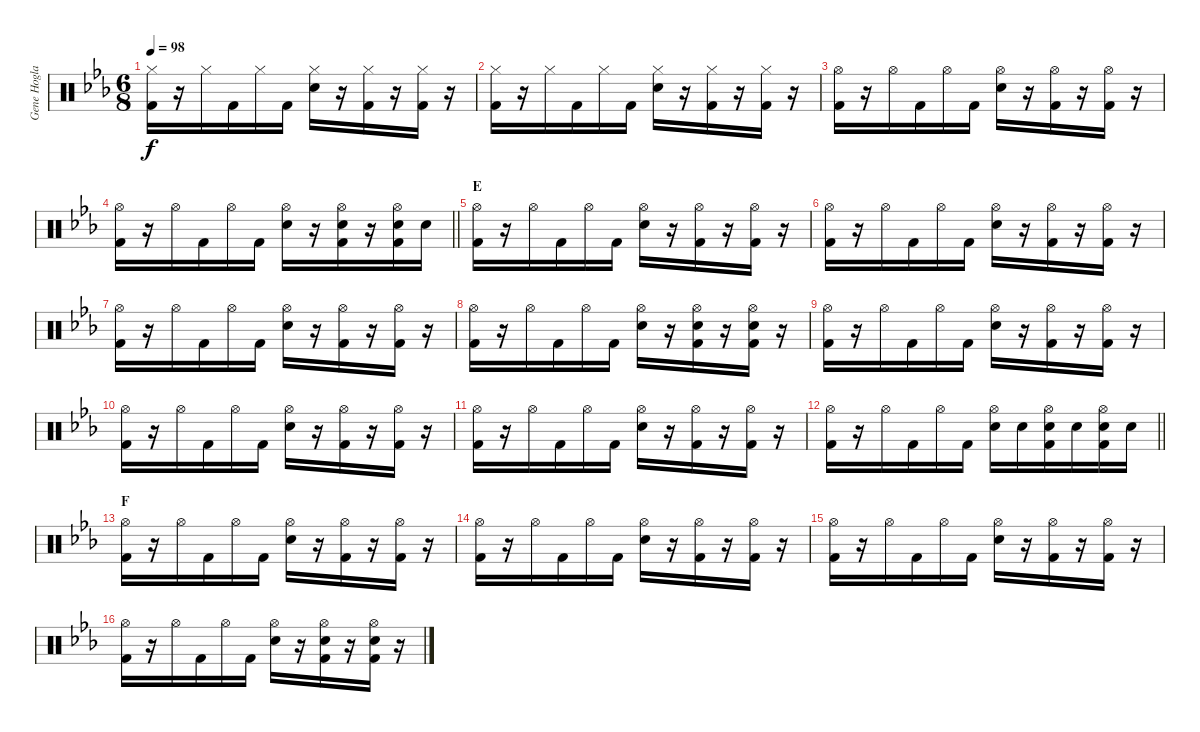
\track ("Gene Hogland" "Gene Hogla") {instrument percussion}
\staff {score}
\articulation defaults
\ts (6 8)
\tempo 98
\clef neutral
\ks eb
("Hi-Hat (closed)" "Kick (hit) 2").16{dy f} r.16 "Hi-Hat (closed)".16 "Kick (hit) 2".16 "Hi-Hat (closed)".16 "Kick (hit) 2".16 ("Hi-Hat (closed)" "Electric Snare (hit)").16 r.16 ("Hi-Hat (closed)" "Kick (hit) 2").16 r.16 ("Hi-Hat (closed)" "Kick (hit) 2").16 r.16 |
("Hi-Hat (closed)" "Kick (hit) 2").16 r.16 "Hi-Hat (closed)".16 "Kick (hit) 2".16 "Hi-Hat (closed)".16 "Kick (hit) 2".16 ("Hi-Hat (closed)" "Electric Snare (hit)").16 r.16 ("Hi-Hat (closed)" "Kick (hit) 2").16 r.16 ("Hi-Hat (closed)" "Kick (hit) 2").16 r.16 |
("Hi-Hat (open)" "Kick (hit) 2").16 r.16 "Hi-Hat (open)".16 "Kick (hit) 2".16 "Hi-Hat (open)".16 "Kick (hit) 2".16 ("Hi-Hat (open)" "Electric Snare (hit)").16 r.16 ("Hi-Hat (open)" "Kick (hit) 2").16 r.16 ("Hi-Hat (open)" "Kick (hit) 2").16 r.16 |
\barLineRight lightlight
("Hi-Hat (open)" "Kick (hit) 2").16 r.16 "Hi-Hat (open)".16 "Kick (hit) 2".16 "Hi-Hat (open)".16 "Kick (hit) 2".16 ("Hi-Hat (open)" "Electric Snare (hit)").16 r.16 ("Hi-Hat (open)" "Electric Snare (hit)" "Kick (hit) 2").16 r.16 ("Hi-Hat (open)" "Electric Snare (hit)" "Kick (hit) 2").16 "Electric Snare (hit)".16 |
\section ("" "E")
("Hi-Hat (open)" "Kick (hit) 2").16 r.16 "Hi-Hat (open)".16 "Kick (hit) 2".16 "Hi-Hat (open)".16 "Kick (hit) 2".16 ("Hi-Hat (open)" "Electric Snare (hit)").16 r.16 ("Hi-Hat (open)" "Kick (hit) 2").16 r.16 ("Hi-Hat (open)" "Kick (hit) 2").16 r.16 |
("Hi-Hat (open)" "Kick (hit) 2").16 r.16 "Hi-Hat (open)".16 "Kick (hit) 2".16 "Hi-Hat (open)".16 "Kick (hit) 2".16 ("Hi-Hat (open)" "Electric Snare (hit)").16 r.16 ("Hi-Hat (open)" "Kick (hit) 2").16 r.16 ("Hi-Hat (open)" "Kick (hit) 2").16 r.16 |
("Hi-Hat (open)" "Kick (hit) 2").16 r.16 "Hi-Hat (open)".16 "Kick (hit) 2".16 "Hi-Hat (open)".16 "Kick (hit) 2".16 ("Hi-Hat (open)" "Electric Snare (hit)").16 r.16 ("Hi-Hat (open)" "Kick (hit) 2").16 r.16 ("Hi-Hat (open)" "Kick (hit) 2").16 r.16 |
("Hi-Hat (open)" "Kick (hit) 2").16 r.16 "Hi-Hat (open)".16 "Kick (hit) 2".16 "Hi-Hat (open)".16 "Kick (hit) 2".16 ("Hi-Hat (open)" "Electric Snare (hit)").16 r.16 ("Hi-Hat (open)" "Electric Snare (hit)" "Kick (hit) 2").16 r.16 ("Hi-Hat (open)" "Electric Snare (hit)" "Kick (hit) 2").16 r.16 |
("Hi-Hat (open)" "Kick (hit) 2").16 r.16 "Hi-Hat (open)".16 "Kick (hit) 2".16 "Hi-Hat (open)".16 "Kick (hit) 2".16 ("Hi-Hat (open)" "Electric Snare (hit)").16 r.16 ("Hi-Hat (open)" "Kick (hit) 2").16 r.16 ("Hi-Hat (open)" "Kick (hit) 2").16 r.16 |
("Hi-Hat (open)" "Kick (hit) 2").16 r.16 "Hi-Hat (open)".16 "Kick (hit) 2".16 "Hi-Hat (open)".16 "Kick (hit) 2".16 ("Hi-Hat (open)" "Electric Snare (hit)").16 r.16 ("Hi-Hat (open)" "Kick (hit) 2").16 r.16 ("Hi-Hat (open)" "Kick (hit) 2").16 r.16 |
("Hi-Hat (open)" "Kick (hit) 2").16 r.16 "Hi-Hat (open)".16 "Kick (hit) 2".16 "Hi-Hat (open)".16 "Kick (hit) 2".16 ("Hi-Hat (open)" "Electric Snare (hit)").16 r.16 ("Hi-Hat (open)" "Kick (hit) 2").16 r.16 ("Hi-Hat (open)" "Kick (hit) 2").16 r.16 |
\barLineRight lightlight
("Hi-Hat (open)" "Kick (hit) 2").16 r.16 "Hi-Hat (open)".16 "Kick (hit) 2".16 "Hi-Hat (open)".16 "Kick (hit) 2".16 ("Hi-Hat (open)" "Electric Snare (hit)").16 "Electric Snare (hit)".16 ("Hi-Hat (open)" "Electric Snare (hit)" "Kick (hit) 2").16 "Electric Snare (hit)".16 ("Hi-Hat (open)" "Electric Snare (hit)" "Kick (hit) 2").16 "Electric Snare (hit)".16 |
\section ("" "F")
("Hi-Hat (open)" "Kick (hit) 2").16 r.16 "Hi-Hat (open)".16 "Kick (hit) 2".16 "Hi-Hat (open)".16 "Kick (hit) 2".16 ("Hi-Hat (open)" "Electric Snare (hit)").16 r.16 ("Hi-Hat (open)" "Kick (hit) 2").16 r.16 ("Hi-Hat (open)" "Kick (hit) 2").16 r.16 |
("Hi-Hat (open)" "Kick (hit) 2").16 r.16 "Hi-Hat (open)".16 "Kick (hit) 2".16 "Hi-Hat (open)".16 "Kick (hit) 2".16 ("Hi-Hat (open)" "Electric Snare (hit)").16 r.16 ("Hi-Hat (open)" "Kick (hit) 2").16 r.16 ("Hi-Hat (open)" "Kick (hit) 2").16 r.16 |
("Hi-Hat (open)" "Kick (hit) 2").16 r.16 "Hi-Hat (open)".16 "Kick (hit) 2".16 "Hi-Hat (open)".16 "Kick (hit) 2".16 ("Hi-Hat (open)" "Electric Snare (hit)").16 r.16 ("Hi-Hat (open)" "Kick (hit) 2").16 r.16 ("Hi-Hat (open)" "Kick (hit) 2").16 r.16 |
("Hi-Hat (open)" "Kick (hit) 2").16 r.16 "Hi-Hat (open)".16 "Kick (hit) 2".16 "Hi-Hat (open)".16 "Kick (hit) 2".16 ("Hi-Hat (open)" "Electric Snare (hit)").16 r.16 ("Hi-Hat (open)" "Electric Snare (hit)" "Kick (hit) 2").16 r.16 ("Hi-Hat (open)" "Electric Snare (hit)" "Kick (hit) 2").16 r.16
